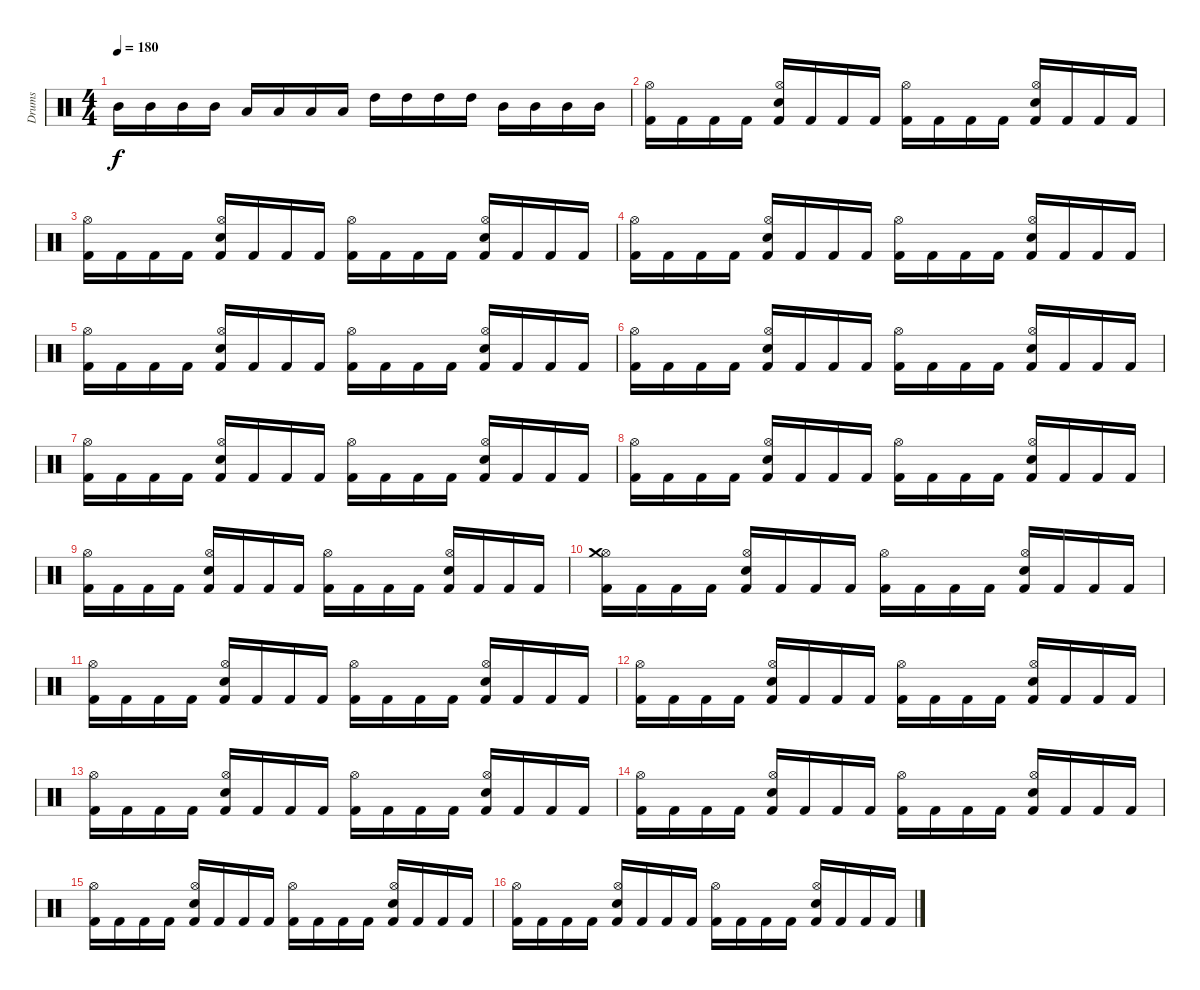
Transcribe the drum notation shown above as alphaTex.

\track ("Drums" "Drums") {instrument percussion}
\staff {score}
\articulation defaults
\ts (4 4)
\tempo 180
\clef neutral
\ks c "Mid Tom (hit)".16{dy f} "Mid Tom (hit)".16 "Mid Tom (hit)".16 "Mid Tom (hit)".16 "Low Tom (hit)".16 "Low Tom (hit)".16 "Low Tom (hit)".16 "Low Tom (hit)".16 "High Tom (hit)".16 "High Tom (hit)".16 "High Tom (hit)".16 "High Tom (hit)".16 "Mid Tom (hit)".16 "Mid Tom (hit)".16 "Mid Tom (hit)".16 "Mid Tom (hit)".16
|
("Kick (hit) 2" "Hi-Hat (open)").16 "Kick (hit) 2".16 "Kick (hit) 2".16 "Kick (hit) 2".16 ("Kick (hit) 2" "Snare (hit) 2" "Hi-Hat (open)").16 "Kick (hit) 2".16 "Kick (hit) 2".16 "Kick (hit) 2".16 ("Kick (hit) 2" "Hi-Hat (open)").16 "Kick (hit) 2".16 "Kick (hit) 2".16 "Kick (hit) 2".16 ("Kick (hit) 2" "Snare (hit) 2" "Hi-Hat (open)").16 "Kick (hit) 2".16 "Kick (hit) 2".16 "Kick (hit) 2".16 |
("Kick (hit) 2" "Hi-Hat (open)").16 "Kick (hit) 2".16 "Kick (hit) 2".16 "Kick (hit) 2".16 ("Kick (hit) 2" "Snare (hit) 2" "Hi-Hat (open)").16 "Kick (hit) 2".16 "Kick (hit) 2".16 "Kick (hit) 2".16 ("Kick (hit) 2" "Hi-Hat (open)").16 "Kick (hit) 2".16 "Kick (hit) 2".16 "Kick (hit) 2".16 ("Kick (hit) 2" "Snare (hit) 2" "Hi-Hat (open)").16 "Kick (hit) 2".16 "Kick (hit) 2".16 "Kick (hit) 2".16 |
("Kick (hit) 2" "Hi-Hat (open)").16 "Kick (hit) 2".16 "Kick (hit) 2".16 "Kick (hit) 2".16 ("Kick (hit) 2" "Snare (hit) 2" "Hi-Hat (open)").16 "Kick (hit) 2".16 "Kick (hit) 2".16 "Kick (hit) 2".16 ("Kick (hit) 2" "Hi-Hat (open)").16 "Kick (hit) 2".16 "Kick (hit) 2".16 "Kick (hit) 2".16 ("Kick (hit) 2" "Snare (hit) 2" "Hi-Hat (open)").16 "Kick (hit) 2".16 "Kick (hit) 2".16 "Kick (hit) 2".16 |
("Kick (hit) 2" "Hi-Hat (open)").16 "Kick (hit) 2".16 "Kick (hit) 2".16 "Kick (hit) 2".16 ("Kick (hit) 2" "Snare (hit) 2" "Hi-Hat (open)").16 "Kick (hit) 2".16 "Kick (hit) 2".16 "Kick (hit) 2".16 ("Kick (hit) 2" "Hi-Hat (open)").16 "Kick (hit) 2".16 "Kick (hit) 2".16 "Kick (hit) 2".16 ("Kick (hit) 2" "Snare (hit) 2" "Hi-Hat (open)").16 "Kick (hit) 2".16 "Kick (hit) 2".16 "Kick (hit) 2".16 |
("Kick (hit) 2" "Hi-Hat (open)").16 "Kick (hit) 2".16 "Kick (hit) 2".16 "Kick (hit) 2".16 ("Kick (hit) 2" "Snare (hit) 2" "Hi-Hat (open)").16 "Kick (hit) 2".16 "Kick (hit) 2".16 "Kick (hit) 2".16 ("Kick (hit) 2" "Hi-Hat (open)").16 "Kick (hit) 2".16 "Kick (hit) 2".16 "Kick (hit) 2".16 ("Kick (hit) 2" "Snare (hit) 2" "Hi-Hat (open)").16 "Kick (hit) 2".16 "Kick (hit) 2".16 "Kick (hit) 2".16 |
("Kick (hit) 2" "Hi-Hat (open)").16 "Kick (hit) 2".16 "Kick (hit) 2".16 "Kick (hit) 2".16 ("Kick (hit) 2" "Snare (hit) 2" "Hi-Hat (open)").16 "Kick (hit) 2".16 "Kick (hit) 2".16 "Kick (hit) 2".16 ("Kick (hit) 2" "Hi-Hat (open)").16 "Kick (hit) 2".16 "Kick (hit) 2".16 "Kick (hit) 2".16 ("Kick (hit) 2" "Snare (hit) 2" "Hi-Hat (open)").16 "Kick (hit) 2".16 "Kick (hit) 2".16 "Kick (hit) 2".16 |
("Kick (hit) 2" "Hi-Hat (open)").16 "Kick (hit) 2".16 "Kick (hit) 2".16 "Kick (hit) 2".16 ("Kick (hit) 2" "Snare (hit) 2" "Hi-Hat (open)").16 "Kick (hit) 2".16 "Kick (hit) 2".16 "Kick (hit) 2".16 ("Kick (hit) 2" "Hi-Hat (open)").16 "Kick (hit) 2".16 "Kick (hit) 2".16 "Kick (hit) 2".16 ("Kick (hit) 2" "Snare (hit) 2" "Hi-Hat (open)").16 "Kick (hit) 2".16 "Kick (hit) 2".16 "Kick (hit) 2".16 |
("Kick (hit) 2" "Hi-Hat (open)").16 "Kick (hit) 2".16 "Kick (hit) 2".16 "Kick (hit) 2".16 ("Kick (hit) 2" "Snare (hit) 2" "Hi-Hat (open)").16 "Kick (hit) 2".16 "Kick (hit) 2".16 "Kick (hit) 2".16 ("Kick (hit) 2" "Hi-Hat (open)").16 "Kick (hit) 2".16 "Kick (hit) 2".16 "Kick (hit) 2".16 ("Kick (hit) 2" "Snare (hit) 2" "Hi-Hat (open)").16 "Kick (hit) 2".16 "Kick (hit) 2".16 "Kick (hit) 2".16 |
("Kick (hit) 2" "Hi-Hat (open)" "Crash medium (hit)").16 "Kick (hit) 2".16 "Kick (hit) 2".16 "Kick (hit) 2".16 ("Kick (hit) 2" "Snare (hit) 2" "Hi-Hat (open)").16 "Kick (hit) 2".16 "Kick (hit) 2".16 "Kick (hit) 2".16 ("Kick (hit) 2" "Hi-Hat (open)").16 "Kick (hit) 2".16 "Kick (hit) 2".16 "Kick (hit) 2".16 ("Kick (hit) 2" "Snare (hit) 2" "Hi-Hat (open)").16 "Kick (hit) 2".16 "Kick (hit) 2".16 "Kick (hit) 2".16 |
("Kick (hit) 2" "Hi-Hat (open)").16 "Kick (hit) 2".16 "Kick (hit) 2".16 "Kick (hit) 2".16 ("Kick (hit) 2" "Snare (hit) 2" "Hi-Hat (open)").16 "Kick (hit) 2".16 "Kick (hit) 2".16 "Kick (hit) 2".16 ("Kick (hit) 2" "Hi-Hat (open)").16 "Kick (hit) 2".16 "Kick (hit) 2".16 "Kick (hit) 2".16 ("Kick (hit) 2" "Snare (hit) 2" "Hi-Hat (open)").16 "Kick (hit) 2".16 "Kick (hit) 2".16 "Kick (hit) 2".16 |
("Kick (hit) 2" "Hi-Hat (open)").16 "Kick (hit) 2".16 "Kick (hit) 2".16 "Kick (hit) 2".16 ("Kick (hit) 2" "Snare (hit) 2" "Hi-Hat (open)").16 "Kick (hit) 2".16 "Kick (hit) 2".16 "Kick (hit) 2".16 ("Kick (hit) 2" "Hi-Hat (open)").16 "Kick (hit) 2".16 "Kick (hit) 2".16 "Kick (hit) 2".16 ("Kick (hit) 2" "Snare (hit) 2" "Hi-Hat (open)").16 "Kick (hit) 2".16 "Kick (hit) 2".16 "Kick (hit) 2".16 |
("Kick (hit) 2" "Hi-Hat (open)").16 "Kick (hit) 2".16 "Kick (hit) 2".16 "Kick (hit) 2".16 ("Kick (hit) 2" "Snare (hit) 2" "Hi-Hat (open)").16 "Kick (hit) 2".16 "Kick (hit) 2".16 "Kick (hit) 2".16 ("Kick (hit) 2" "Hi-Hat (open)").16 "Kick (hit) 2".16 "Kick (hit) 2".16 "Kick (hit) 2".16 ("Kick (hit) 2" "Snare (hit) 2" "Hi-Hat (open)").16 "Kick (hit) 2".16 "Kick (hit) 2".16 "Kick (hit) 2".16 |
("Kick (hit) 2" "Hi-Hat (open)").16 "Kick (hit) 2".16 "Kick (hit) 2".16 "Kick (hit) 2".16 ("Kick (hit) 2" "Snare (hit) 2" "Hi-Hat (open)").16 "Kick (hit) 2".16 "Kick (hit) 2".16 "Kick (hit) 2".16 ("Kick (hit) 2" "Hi-Hat (open)").16 "Kick (hit) 2".16 "Kick (hit) 2".16 "Kick (hit) 2".16 ("Kick (hit) 2" "Snare (hit) 2" "Hi-Hat (open)").16 "Kick (hit) 2".16 "Kick (hit) 2".16 "Kick (hit) 2".16 |
("Kick (hit) 2" "Hi-Hat (open)").16 "Kick (hit) 2".16 "Kick (hit) 2".16 "Kick (hit) 2".16 ("Kick (hit) 2" "Snare (hit) 2" "Hi-Hat (open)").16 "Kick (hit) 2".16 "Kick (hit) 2".16 "Kick (hit) 2".16 ("Kick (hit) 2" "Hi-Hat (open)").16 "Kick (hit) 2".16 "Kick (hit) 2".16 "Kick (hit) 2".16 ("Kick (hit) 2" "Snare (hit) 2" "Hi-Hat (open)").16 "Kick (hit) 2".16 "Kick (hit) 2".16 "Kick (hit) 2".16 |
("Kick (hit) 2" "Hi-Hat (open)").16 "Kick (hit) 2".16 "Kick (hit) 2".16 "Kick (hit) 2".16 ("Kick (hit) 2" "Snare (hit) 2" "Hi-Hat (open)").16 "Kick (hit) 2".16 "Kick (hit) 2".16 "Kick (hit) 2".16 ("Kick (hit) 2" "Hi-Hat (open)").16 "Kick (hit) 2".16 "Kick (hit) 2".16 "Kick (hit) 2".16 ("Kick (hit) 2" "Snare (hit) 2" "Hi-Hat (open)").16 "Kick (hit) 2".16 "Kick (hit) 2".16 "Kick (hit) 2".16
